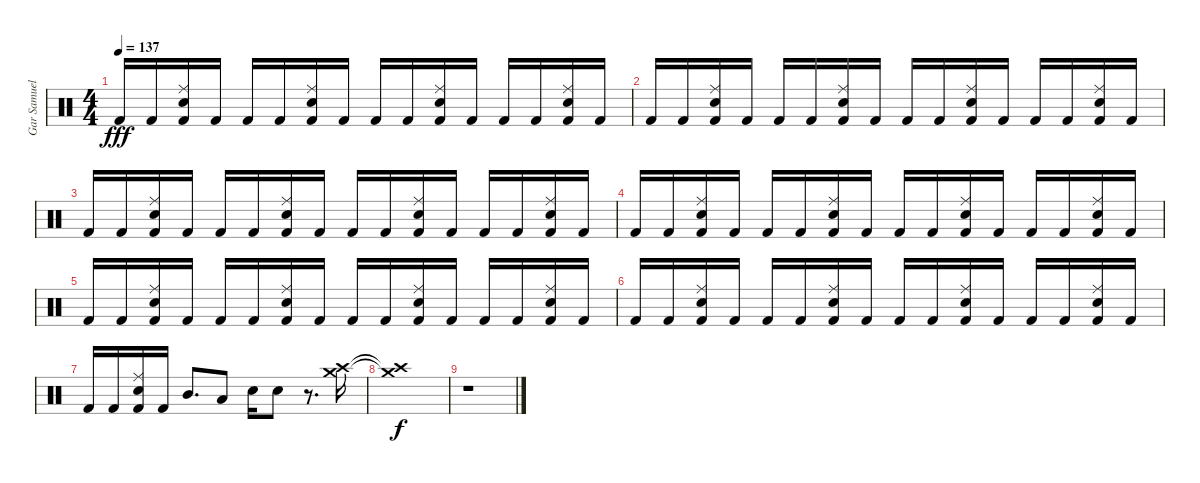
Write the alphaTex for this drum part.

\track ("Gar Samuelson" "Gar Samuel") {instrument percussion}
\staff {score}
\articulation defaults
\ts (4 4)
\tempo 137
\clef neutral
\ks c "Kick (hit) 2".16{dy fff} "Kick (hit) 2".16
("Ride (middle)" "Electric Snare (hit)" "Kick (hit) 2").16 "Kick (hit) 2".16 "Kick (hit) 2".16 "Kick (hit) 2".16 ("Ride (middle)" "Electric Snare (hit)" "Kick (hit) 2").16 "Kick (hit) 2".16 "Kick (hit) 2".16 "Kick (hit) 2".16 ("Ride (middle)" "Electric Snare (hit)" "Kick (hit) 2").16 "Kick (hit) 2".16 "Kick (hit) 2".16 "Kick (hit) 2".16 ("Ride (middle)" "Electric Snare (hit)" "Kick (hit) 2").16 "Kick (hit) 2".16 |
"Kick (hit) 2".16 "Kick (hit) 2".16 ("Ride (middle)" "Electric Snare (hit)" "Kick (hit) 2").16 "Kick (hit) 2".16 "Kick (hit) 2".16 "Kick (hit) 2".16 ("Ride (middle)" "Electric Snare (hit)" "Kick (hit) 2").16 "Kick (hit) 2".16 "Kick (hit) 2".16 "Kick (hit) 2".16 ("Ride (middle)" "Electric Snare (hit)" "Kick (hit) 2").16 "Kick (hit) 2".16 "Kick (hit) 2".16 "Kick (hit) 2".16 ("Ride (middle)" "Electric Snare (hit)" "Kick (hit) 2").16 "Kick (hit) 2".16 |
"Kick (hit) 2".16 "Kick (hit) 2".16 ("Ride (middle)" "Electric Snare (hit)" "Kick (hit) 2").16 "Kick (hit) 2".16 "Kick (hit) 2".16 "Kick (hit) 2".16 ("Ride (middle)" "Electric Snare (hit)" "Kick (hit) 2").16 "Kick (hit) 2".16 "Kick (hit) 2".16 "Kick (hit) 2".16 ("Ride (middle)" "Electric Snare (hit)" "Kick (hit) 2").16 "Kick (hit) 2".16 "Kick (hit) 2".16 "Kick (hit) 2".16 ("Ride (middle)" "Electric Snare (hit)" "Kick (hit) 2").16 "Kick (hit) 2".16 |
"Kick (hit) 2".16 "Kick (hit) 2".16 ("Ride (middle)" "Electric Snare (hit)" "Kick (hit) 2").16 "Kick (hit) 2".16 "Kick (hit) 2".16 "Kick (hit) 2".16 ("Ride (middle)" "Electric Snare (hit)" "Kick (hit) 2").16 "Kick (hit) 2".16 "Kick (hit) 2".16 "Kick (hit) 2".16 ("Ride (middle)" "Electric Snare (hit)" "Kick (hit) 2").16 "Kick (hit) 2".16 "Kick (hit) 2".16 "Kick (hit) 2".16 ("Ride (middle)" "Electric Snare (hit)" "Kick (hit) 2").16 "Kick (hit) 2".16 |
"Kick (hit) 2".16 "Kick (hit) 2".16 ("Ride (middle)" "Electric Snare (hit)" "Kick (hit) 2").16 "Kick (hit) 2".16 "Kick (hit) 2".16 "Kick (hit) 2".16 ("Ride (middle)" "Electric Snare (hit)" "Kick (hit) 2").16 "Kick (hit) 2".16 "Kick (hit) 2".16 "Kick (hit) 2".16 ("Ride (middle)" "Electric Snare (hit)" "Kick (hit) 2").16 "Kick (hit) 2".16 "Kick (hit) 2".16 "Kick (hit) 2".16 ("Ride (middle)" "Electric Snare (hit)" "Kick (hit) 2").16 "Kick (hit) 2".16 |
"Kick (hit) 2".16 "Kick (hit) 2".16 ("Ride (middle)" "Electric Snare (hit)" "Kick (hit) 2").16 "Kick (hit) 2".16 "Kick (hit) 2".16 "Kick (hit) 2".16 ("Ride (middle)" "Electric Snare (hit)" "Kick (hit) 2").16 "Kick (hit) 2".16 "Kick (hit) 2".16 "Kick (hit) 2".16 ("Ride (middle)" "Electric Snare (hit)" "Kick (hit) 2").16 "Kick (hit) 2".16 "Kick (hit) 2".16 "Kick (hit) 2".16 ("Ride (middle)" "Electric Snare (hit)" "Kick (hit) 2").16 "Kick (hit) 2".16 |
"Kick (hit) 2".16 "Kick (hit) 2".16 ("Ride (middle)" "Electric Snare (hit)" "Kick (hit) 2").16 "Kick (hit) 2".16 "Mid Tom (hit)".8{d} "Low Tom (hit)".8 "Electric Snare (hit)".16 "Electric Snare (hit)".8 r.8{d} ("Crash medium (hit)" "Crash high (hit)").16 |
("Crash medium (hit)"{t} "Crash high (hit)"{t}).1{dy f} |
r.1
